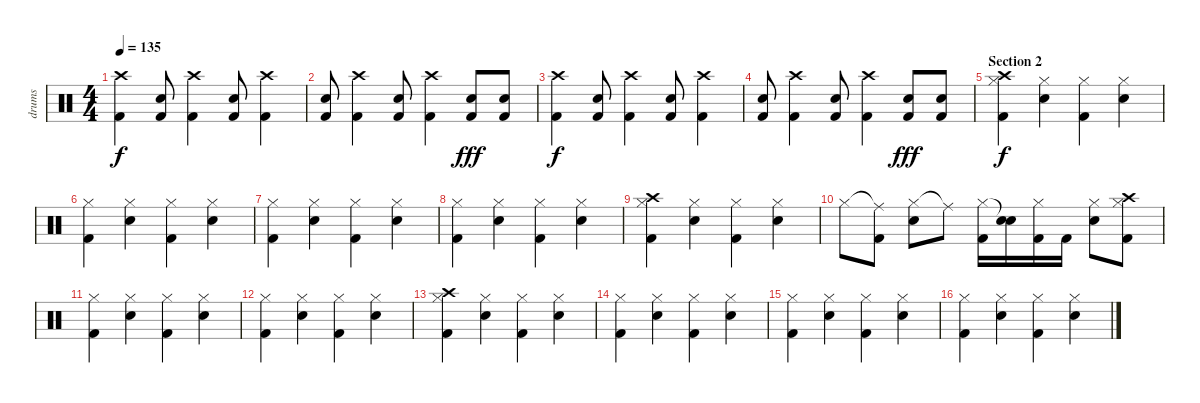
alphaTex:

\track ("drums" "drums") {instrument percussion}
\staff {score}
\articulation defaults
\ts (4 4)
\tempo 135
\clef neutral
\ks c
("Crash high (hit)" "Kick (hit) 2").4{dy f} ("Electric Snare (hit)" "Kick (hit) 2").8 ("Crash high (hit)" "Kick (hit) 2").4 ("Electric Snare (hit)" "Kick (hit) 2").8 ("Crash high (hit)" "Kick (hit) 2").4 |
("Electric Snare (hit)" "Kick (hit) 2").8 ("Crash high (hit)" "Kick (hit) 2").4 ("Electric Snare (hit)" "Kick (hit) 2").8 ("Crash high (hit)" "Kick (hit) 2").4 ("Electric Snare (hit)" "Kick (hit) 2").8{dy fff} ("Electric Snare (hit)" "Kick (hit) 2").8 |
("Crash high (hit)" "Kick (hit) 2").4{dy f} ("Electric Snare (hit)" "Kick (hit) 2").8 ("Crash high (hit)" "Kick (hit) 2").4 ("Electric Snare (hit)" "Kick (hit) 2").8 ("Crash high (hit)" "Kick (hit) 2").4 |
("Electric Snare (hit)" "Kick (hit) 2").8 ("Crash high (hit)" "Kick (hit) 2").4 ("Electric Snare (hit)" "Kick (hit) 2").8 ("Crash high (hit)" "Kick (hit) 2").4 ("Electric Snare (hit)" "Kick (hit) 2").8{dy fff} ("Electric Snare (hit)" "Kick (hit) 2").8 |
\section ("" "Section 2")
("Crash high (hit)" "Hi-Hat (closed)" "Kick (hit) 2").4{dy f} ("Hi-Hat (closed)" "Electric Snare (hit)").4 ("Hi-Hat (closed)" "Kick (hit) 2").4 ("Hi-Hat (closed)" "Electric Snare (hit)").4 |
("Hi-Hat (closed)" "Kick (hit) 2").4 ("Hi-Hat (closed)" "Electric Snare (hit)").4 ("Hi-Hat (closed)" "Kick (hit) 2").4 ("Hi-Hat (closed)" "Electric Snare (hit)").4 |
("Hi-Hat (closed)" "Kick (hit) 2").4 ("Hi-Hat (closed)" "Electric Snare (hit)").4 ("Hi-Hat (closed)" "Kick (hit) 2").4 ("Hi-Hat (closed)" "Electric Snare (hit)").4 |
("Hi-Hat (closed)" "Kick (hit) 2").4 ("Hi-Hat (closed)" "Electric Snare (hit)").4 ("Hi-Hat (closed)" "Kick (hit) 2").4 ("Hi-Hat (closed)" "Electric Snare (hit)").4 |
("Crash high (hit)" "Hi-Hat (closed)" "Kick (hit) 2").4 ("Hi-Hat (closed)" "Electric Snare (hit)").4 ("Hi-Hat (closed)" "Kick (hit) 2").4 ("Hi-Hat (closed)" "Electric Snare (hit)").4 |
"Hi-Hat (closed)".8 ("Ride (middle)"{t} "Kick (hit) 2").8 ("Hi-Hat (closed)" "Electric Snare (hit)").8 "Ride (middle)"{t}.8 ("Hi-Hat (closed)" "Kick (hit) 2").16 ("Electric Snare (hit)"{t} "Electric Snare (hit)").16 ("Hi-Hat (closed)" "Kick (hit) 2").16 "Kick (hit) 2".16 ("Hi-Hat (closed)" "Electric Snare (hit)").8 ("Hi-Hat (closed)" "Kick (hit) 2" "Crash high (hit)").8 |
("Hi-Hat (closed)" "Kick (hit) 2").4 ("Hi-Hat (closed)" "Electric Snare (hit)").4 ("Hi-Hat (closed)" "Kick (hit) 2").4 ("Hi-Hat (closed)" "Electric Snare (hit)").4 |
("Hi-Hat (closed)" "Kick (hit) 2").4 ("Hi-Hat (closed)" "Electric Snare (hit)").4 ("Hi-Hat (closed)" "Kick (hit) 2").4 ("Hi-Hat (closed)" "Electric Snare (hit)").4 |
("Crash high (hit)" "Hi-Hat (closed)" "Kick (hit) 2").4 ("Hi-Hat (closed)" "Electric Snare (hit)").4 ("Hi-Hat (closed)" "Kick (hit) 2").4 ("Hi-Hat (closed)" "Electric Snare (hit)").4 |
("Hi-Hat (closed)" "Kick (hit) 2").4 ("Hi-Hat (closed)" "Electric Snare (hit)").4 ("Hi-Hat (closed)" "Kick (hit) 2").4 ("Hi-Hat (closed)" "Electric Snare (hit)").4 |
("Hi-Hat (closed)" "Kick (hit) 2").4 ("Hi-Hat (closed)" "Electric Snare (hit)").4 ("Hi-Hat (closed)" "Kick (hit) 2").4 ("Hi-Hat (closed)" "Electric Snare (hit)").4 |
("Hi-Hat (closed)" "Kick (hit) 2").4 ("Hi-Hat (closed)" "Electric Snare (hit)").4 ("Hi-Hat (closed)" "Kick (hit) 2").4 ("Hi-Hat (closed)" "Electric Snare (hit)").4
